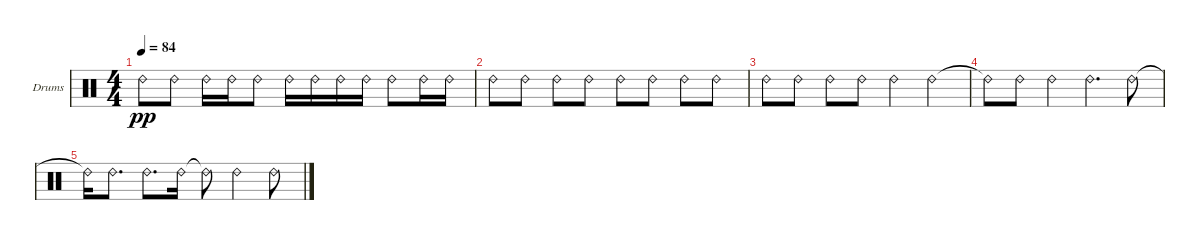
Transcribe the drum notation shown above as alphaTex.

\defaultSystemsLayout 4
\bracketExtendMode groupsimilarinstruments
\firstSystemTrackNameOrientation horizontal
\otherSystemsTrackNameOrientation horizontal
\track ("Drumkit" "Drums") {instrument percussion}
\staff {score}
\articulation defaults
\ts (4 4)
\tempo 84
\clef neutral
\ks aminor "Ride (bell) 2".8{dy pp} "Ride (bell) 2".8 "Ride (bell) 2".16 "Ride (bell) 2".16 "Ride (bell) 2".8 "Ride (bell) 2".16 "Ride (bell) 2".16 "Ride (bell) 2".16 "Ride (bell) 2".16 "Ride (bell) 2".8 "Ride (bell) 2".16 "Ride (bell) 2".16
|
"Ride (bell) 2".8 "Ride (bell) 2".8 "Ride (bell) 2".8 "Ride (bell) 2".8 "Ride (bell) 2".8 "Ride (bell) 2".8 "Ride (bell) 2".8 "Ride (bell) 2".8 |
"Ride (bell) 2".8 "Ride (bell) 2".8 "Ride (bell) 2".8 "Ride (bell) 2".8 "Ride (bell) 2".4 "Ride (bell) 2".4 |
"Ride (bell) 2"{t}.8 "Ride (bell) 2".8 "Ride (bell) 2".4 "Ride (bell) 2".4{d} "Ride (bell) 2".8 |
"Ride (bell) 2"{t}.16 "Ride (bell) 2".8{d} "Ride (bell) 2".8{d} "Ride (bell) 2".16 "Ride (bell) 2"{t}.8 "Ride (bell) 2".4 "Ride (bell) 2".8
